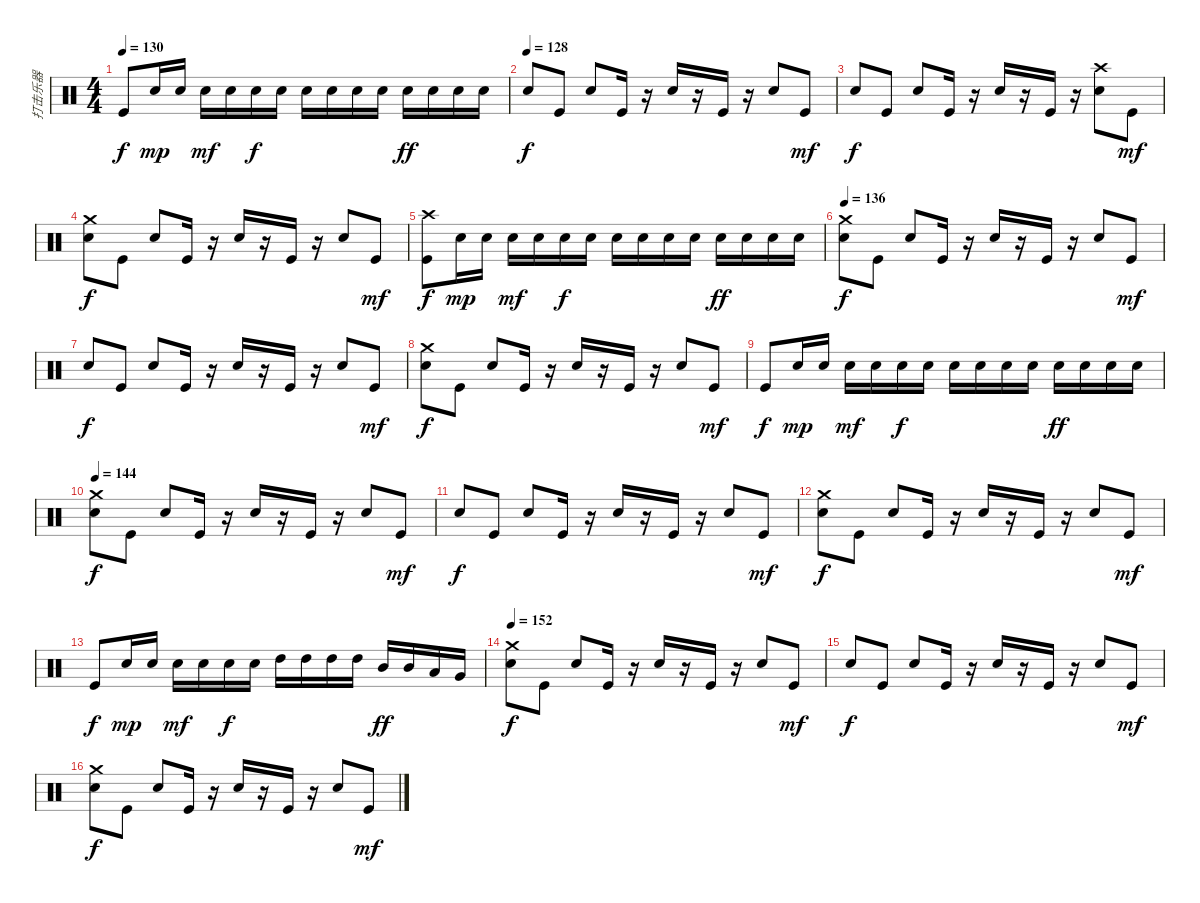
\track ("打击乐器" "打击乐器") {instrument percussion}
\staff {score}
\articulation defaults
\ts (4 4)
\tempo 130
\clef neutral
\ks c "Kick (hit)".8{dy f} "Electric Snare (hit)".16{dy mp} "Electric Snare (hit)".16 "Electric Snare (hit)".16{dy mf} "Electric Snare (hit)".16 "Electric Snare (hit)".16{dy f} "Electric Snare (hit)".16 "Electric Snare (hit)".16 "Electric Snare (hit)".16 "Electric Snare (hit)".16 "Electric Snare (hit)".16 "Electric Snare (hit)".16{dy ff} "Electric Snare (hit)".16 "Electric Snare (hit)".16 "Electric Snare (hit)".16
|
\tempo (128)
"Electric Snare (hit)".8{dy f} "Kick (hit)".8 "Electric Snare (hit)".8 "Kick (hit)".16 r.16 "Electric Snare (hit)".16 r.16 "Kick (hit)".16 r.16 "Electric Snare (hit)".8 "Kick (hit)".8{dy mf} |
"Electric Snare (hit)".8{dy f} "Kick (hit)".8 "Electric Snare (hit)".8 "Kick (hit)".16 r.16 "Electric Snare (hit)".16 r.16 "Kick (hit)".16 r.16 ("Crash high (hit)" "Electric Snare (hit)").8 "Kick (hit)".8{dy mf} |
("Crash medium (hit)" "Electric Snare (hit)").8{dy f} "Kick (hit)".8 "Electric Snare (hit)".8 "Kick (hit)".16 r.16 "Electric Snare (hit)".16 r.16 "Kick (hit)".16 r.16 "Electric Snare (hit)".8 "Kick (hit)".8{dy mf} |
("Crash high (hit)" "Kick (hit)").8{dy f} "Electric Snare (hit)".16{dy mp} "Electric Snare (hit)".16 "Electric Snare (hit)".16{dy mf} "Electric Snare (hit)".16 "Electric Snare (hit)".16{dy f} "Electric Snare (hit)".16 "Electric Snare (hit)".16 "Electric Snare (hit)".16 "Electric Snare (hit)".16 "Electric Snare (hit)".16 "Electric Snare (hit)".16{dy ff} "Electric Snare (hit)".16 "Electric Snare (hit)".16 "Electric Snare (hit)".16 |
\tempo 136
("Crash medium (hit)" "Electric Snare (hit)").8{dy f} "Kick (hit)".8 "Electric Snare (hit)".8 "Kick (hit)".16 r.16 "Electric Snare (hit)".16 r.16 "Kick (hit)".16 r.16 "Electric Snare (hit)".8 "Kick (hit)".8{dy mf} |
"Electric Snare (hit)".8{dy f} "Kick (hit)".8 "Electric Snare (hit)".8 "Kick (hit)".16 r.16 "Electric Snare (hit)".16 r.16 "Kick (hit)".16 r.16 "Electric Snare (hit)".8 "Kick (hit)".8{dy mf} |
("Crash medium (hit)" "Electric Snare (hit)").8{dy f} "Kick (hit)".8 "Electric Snare (hit)".8 "Kick (hit)".16 r.16 "Electric Snare (hit)".16 r.16 "Kick (hit)".16 r.16 "Electric Snare (hit)".8 "Kick (hit)".8{dy mf} |
"Kick (hit)".8{dy f} "Electric Snare (hit)".16{dy mp} "Electric Snare (hit)".16 "Electric Snare (hit)".16{dy mf} "Electric Snare (hit)".16 "Electric Snare (hit)".16{dy f} "Electric Snare (hit)".16 "Electric Snare (hit)".16 "Electric Snare (hit)".16 "Electric Snare (hit)".16 "Electric Snare (hit)".16 "Electric Snare (hit)".16{dy ff} "Electric Snare (hit)".16 "Electric Snare (hit)".16 "Electric Snare (hit)".16 |
\tempo 144
("Crash medium (hit)" "Electric Snare (hit)").8{dy f} "Kick (hit)".8 "Electric Snare (hit)".8 "Kick (hit)".16 r.16 "Electric Snare (hit)".16 r.16 "Kick (hit)".16 r.16 "Electric Snare (hit)".8 "Kick (hit)".8{dy mf} |
"Electric Snare (hit)".8{dy f} "Kick (hit)".8 "Electric Snare (hit)".8 "Kick (hit)".16 r.16 "Electric Snare (hit)".16 r.16 "Kick (hit)".16 r.16 "Electric Snare (hit)".8 "Kick (hit)".8{dy mf} |
("Crash medium (hit)" "Electric Snare (hit)").8{dy f} "Kick (hit)".8 "Electric Snare (hit)".8 "Kick (hit)".16 r.16 "Electric Snare (hit)".16 r.16 "Kick (hit)".16 r.16 "Electric Snare (hit)".8 "Kick (hit)".8{dy mf} |
"Kick (hit)".8{dy f} "Electric Snare (hit)".16{dy mp} "Electric Snare (hit)".16 "Electric Snare (hit)".16{dy mf} "Electric Snare (hit)".16 "Electric Snare (hit)".16{dy f} "Electric Snare (hit)".16 "High Tom (hit)".16 "High Tom (hit)".16 "High Tom (hit)".16 "High Tom (hit)".16 "Mid Tom (hit)".16{dy ff} "Mid Tom (hit)".16 "Low Tom (hit)".16 "Very Low Tom (hit)".16 |
\tempo 152
("Crash medium (hit)" "Electric Snare (hit)").8{dy f} "Kick (hit)".8 "Electric Snare (hit)".8 "Kick (hit)".16 r.16 "Electric Snare (hit)".16 r.16 "Kick (hit)".16 r.16 "Electric Snare (hit)".8 "Kick (hit)".8{dy mf} |
"Electric Snare (hit)".8{dy f} "Kick (hit)".8 "Electric Snare (hit)".8 "Kick (hit)".16 r.16 "Electric Snare (hit)".16 r.16 "Kick (hit)".16 r.16 "Electric Snare (hit)".8 "Kick (hit)".8{dy mf} |
("Crash medium (hit)" "Electric Snare (hit)").8{dy f} "Kick (hit)".8 "Electric Snare (hit)".8 "Kick (hit)".16 r.16 "Electric Snare (hit)".16 r.16 "Kick (hit)".16 r.16 "Electric Snare (hit)".8 "Kick (hit)".8{dy mf}
